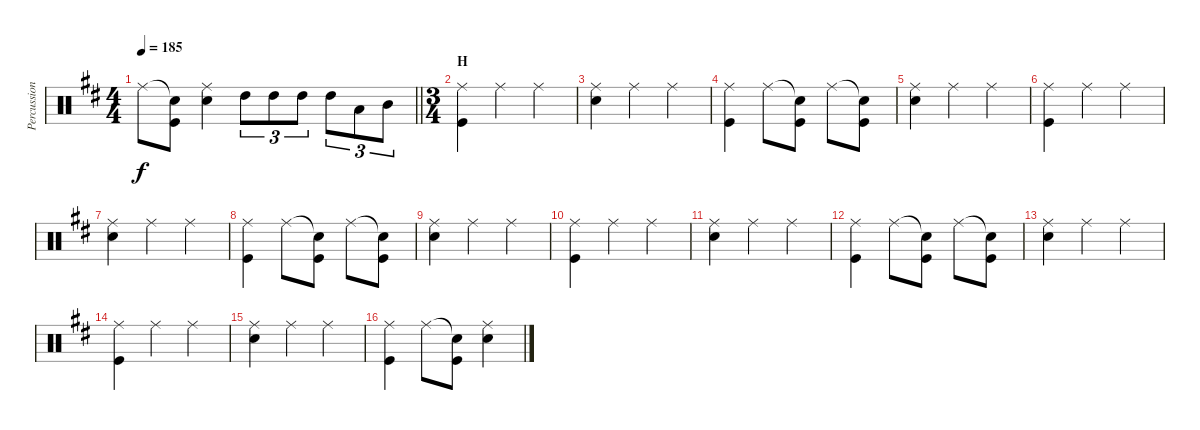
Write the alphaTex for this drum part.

\track ("Percussion" "Percussion") {instrument percussion}
\staff {score}
\articulation defaults
\ts (4 4)
\tempo 185
\clef neutral
\barLineRight lightlight
\ks d "Ride (middle)".8{dy f}
("Snare (hit)"{t} "Kick (hit)").8 ("Ride (middle)" "Snare (hit) 2").4 "High Tom (hit)".8{tu (3 2)} "High Tom (hit)".8{tu (3 2)} "High Tom (hit)".8{tu (3 2)} "High Tom (hit)".8{tu (3 2)} "Low Tom (hit)".8{tu (3 2)} "Mid Tom (hit)".8{tu (3 2)} |
\ts (3 4)
\section ("" "H")
("Ride (middle)" "Kick (hit)").4 "Ride (middle)".4 "Ride (middle)".4 |
("Ride (middle)" "Snare (hit) 2").4 "Ride (middle)".4 "Ride (middle)".4 |
("Ride (middle)" "Kick (hit)").4 "Ride (middle)".8 ("Snare (hit)"{t} "Kick (hit)").8 "Ride (middle)".8 ("Snare (hit)"{t} "Kick (hit)").8 |
("Ride (middle)" "Snare (hit) 2").4 "Ride (middle)".4 "Ride (middle)".4 |
("Ride (middle)" "Kick (hit)").4 "Ride (middle)".4 "Ride (middle)".4 |
("Ride (middle)" "Snare (hit) 2").4 "Ride (middle)".4 "Ride (middle)".4 |
("Ride (middle)" "Kick (hit)").4 "Ride (middle)".8 ("Snare (hit)"{t} "Kick (hit)").8 "Ride (middle)".8 ("Snare (hit)"{t} "Kick (hit)").8 |
("Ride (middle)" "Snare (hit) 2").4 "Ride (middle)".4 "Ride (middle)".4 |
("Ride (middle)" "Kick (hit)").4 "Ride (middle)".4 "Ride (middle)".4 |
("Ride (middle)" "Snare (hit) 2").4 "Ride (middle)".4 "Ride (middle)".4 |
("Ride (middle)" "Kick (hit)").4 "Ride (middle)".8 ("Snare (hit)"{t} "Kick (hit)").8 "Ride (middle)".8 ("Snare (hit)"{t} "Kick (hit)").8 |
("Ride (middle)" "Snare (hit) 2").4 "Ride (middle)".4 "Ride (middle)".4 |
("Ride (middle)" "Kick (hit)").4 "Ride (middle)".4 "Ride (middle)".4 |
("Ride (middle)" "Snare (hit) 2").4 "Ride (middle)".4 "Ride (middle)".4 |
("Ride (middle)" "Kick (hit)").4 "Ride (middle)".8 ("Snare (hit)"{t} "Kick (hit)").8 ("Ride (middle)" "Snare (hit) 2").4
